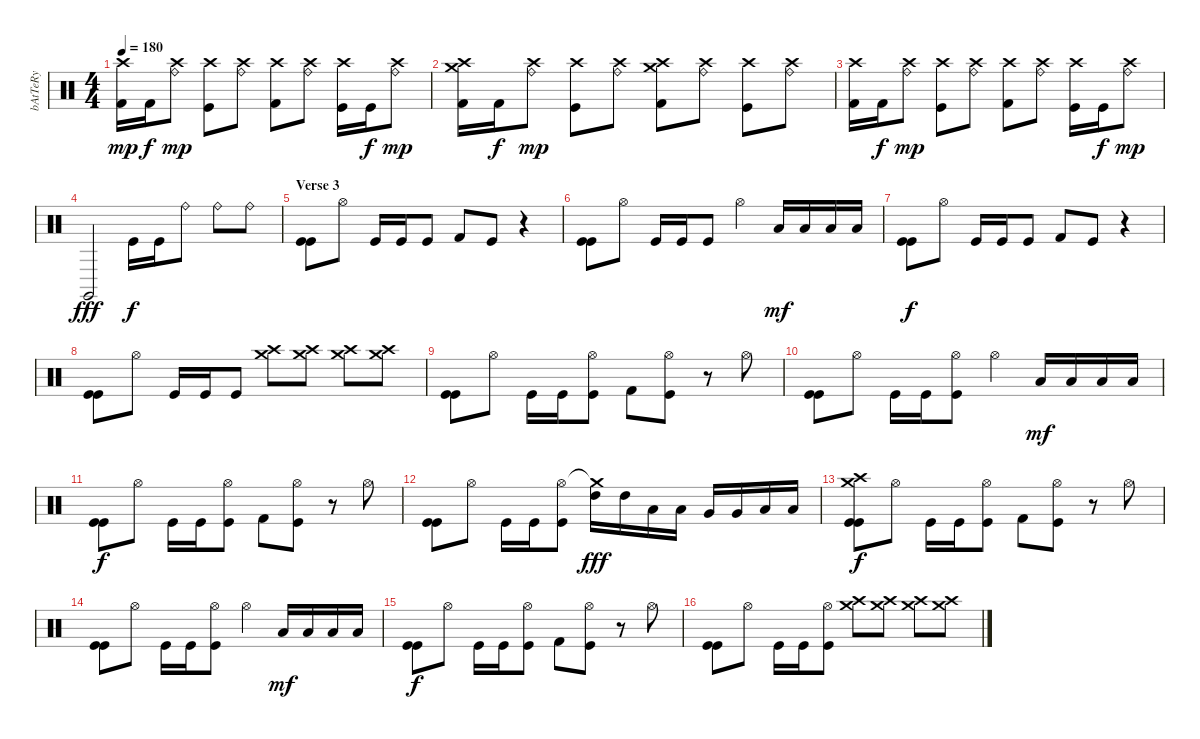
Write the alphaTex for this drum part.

\track ("bAtTeRy" "bAtTeRy") {instrument percussion}
\staff {score}
\articulation defaults
\ts (4 4)
\tempo 180
\clef neutral
\ks c
("Crash high (hit)" "Kick (hit) 2").16{dy mp} "Kick (hit) 2".16{dy f} ("Crash high (hit)" "Ride (bell)").8{dy mp} ("Crash high (hit)" "Kick (hit)").8 ("Crash high (hit)" "Ride (bell)").8 ("Crash high (hit)" "Kick (hit) 2").8 ("Crash high (hit)" "Ride (bell)").8 ("Crash high (hit)" "Kick (hit)").16 "Kick (hit)".16{dy f} ("Crash high (hit)" "Ride (bell)").8{dy mp} |
("Crash medium (hit)" "Crash high (hit)" "Kick (hit) 2").16 "Kick (hit) 2".16{dy f} ("Crash high (hit)" "Ride (bell)").8{dy mp} ("Crash high (hit)" "Kick (hit)").8 ("Crash high (hit)" "Ride (bell)").8 ("Crash medium (hit)" "Crash high (hit)" "Kick (hit) 2").8 ("Crash high (hit)" "Ride (bell)").8 ("Crash high (hit)" "Kick (hit)").8 ("Crash high (hit)" "Ride (bell)").8 |
("Crash high (hit)" "Kick (hit) 2").16 "Kick (hit) 2".16{dy f} ("Crash high (hit)" "Ride (bell)").8{dy mp} ("Crash high (hit)" "Kick (hit)").8 ("Crash high (hit)" "Ride (bell)").8 ("Crash high (hit)" "Kick (hit) 2").8 ("Crash high (hit)" "Ride (bell)").8 ("Crash high (hit)" "Kick (hit)").16 "Kick (hit)".16{dy f} ("Crash high (hit)" "Ride (bell)").8{dy mp} |
"Claves (hit)".2{dy fff} "Kick (hit)".16{dy f} "Kick (hit)".16 "Ride (bell)".8 "Ride (bell)".8 "Ride (bell)".8 |
\section ("" "Verse 3")
("Kick (hit)" "Kick (hit)").8 "Hi-Hat (open)".8 "Kick (hit)".16 "Kick (hit)".16 "Kick (hit)".8 "Kick (hit) 2".8 "Kick (hit)".8 r.4 |
("Kick (hit)" "Kick (hit)").8 "Hi-Hat (open)".8 "Kick (hit)".16 "Kick (hit)".16 "Kick (hit)".8 "Hi-Hat (open)".4 "Low Tom (hit)".16{dy mf} "Low Tom (hit)".16 "Low Tom (hit)".16 "Low Tom (hit)".16 |
("Kick (hit)" "Kick (hit)").8{dy f} "Hi-Hat (open)".8 "Kick (hit)".16 "Kick (hit)".16 "Kick (hit)".8 "Kick (hit) 2".8 "Kick (hit)".8 r.4 |
("Kick (hit)" "Kick (hit)").8 "Hi-Hat (open)".8 "Kick (hit)".16 "Kick (hit)".16 "Kick (hit)".8 ("Crash medium (hit)" "Crash high (hit)").8 ("Crash medium (hit)" "Crash high (hit)").8 ("Crash medium (hit)" "Crash high (hit)").8 ("Crash medium (hit)" "Crash high (hit)").8 |
("Kick (hit)" "Kick (hit)").8 "Hi-Hat (open)".8 "Kick (hit)".16 "Kick (hit)".16 ("Hi-Hat (open)" "Kick (hit)").8 "Kick (hit) 2".8 ("Hi-Hat (open)" "Kick (hit)").8 r.8 "Hi-Hat (open)".8 |
("Kick (hit)" "Kick (hit)").8 "Hi-Hat (open)".8 "Kick (hit)".16 "Kick (hit)".16 ("Hi-Hat (open)" "Kick (hit)").8 "Hi-Hat (open)".4 "Low Tom (hit)".16{dy mf} "Low Tom (hit)".16 "Low Tom (hit)".16 "Low Tom (hit)".16 |
("Kick (hit)" "Kick (hit)").8{dy f} "Hi-Hat (open)".8 "Kick (hit)".16 "Kick (hit)".16 ("Hi-Hat (open)" "Kick (hit)").8 "Kick (hit) 2".8 ("Hi-Hat (open)" "Kick (hit)").8 r.8 "Hi-Hat (open)".8 |
("Kick (hit)" "Kick (hit)").8 "Hi-Hat (open)".8 "Kick (hit)".16 "Kick (hit)".16 ("Hi-Hat (open)" "Kick (hit)").8 ("Crash medium (hit)"{t} "High Tom (hit)").16{dy fff} "High Tom (hit)".16 "Low Tom (hit)".16 "Low Tom (hit)".16 "Very Low Tom (hit)".16 "Very Low Tom (hit)".16 "Low Floor Tom (hit)".16 "Low Floor Tom (hit)".16 |
("Crash medium (hit)" "Crash high (hit)" "Kick (hit)" "Kick (hit)").8{dy f} "Hi-Hat (open)".8 "Kick (hit)".16 "Kick (hit)".16 ("Hi-Hat (open)" "Kick (hit)").8 "Kick (hit) 2".8 ("Hi-Hat (open)" "Kick (hit)").8 r.8 "Hi-Hat (open)".8 |
("Kick (hit)" "Kick (hit)").8 "Hi-Hat (open)".8 "Kick (hit)".16 "Kick (hit)".16 ("Hi-Hat (open)" "Kick (hit)").8 "Hi-Hat (open)".4 "Low Tom (hit)".16{dy mf} "Low Tom (hit)".16 "Low Tom (hit)".16 "Low Tom (hit)".16 |
("Kick (hit)" "Kick (hit)").8{dy f} "Hi-Hat (open)".8 "Kick (hit)".16 "Kick (hit)".16 ("Hi-Hat (open)" "Kick (hit)").8 "Kick (hit) 2".8 ("Hi-Hat (open)" "Kick (hit)").8 r.8 "Hi-Hat (open)".8 |
("Kick (hit)" "Kick (hit)").8 "Hi-Hat (open)".8 "Kick (hit)".16 "Kick (hit)".16 ("Hi-Hat (open)" "Kick (hit)").8 ("Crash medium (hit)" "Crash high (hit)").8 ("Crash medium (hit)" "Crash high (hit)").8 ("Crash medium (hit)" "Crash high (hit)").8 ("Crash medium (hit)" "Crash high (hit)").8
